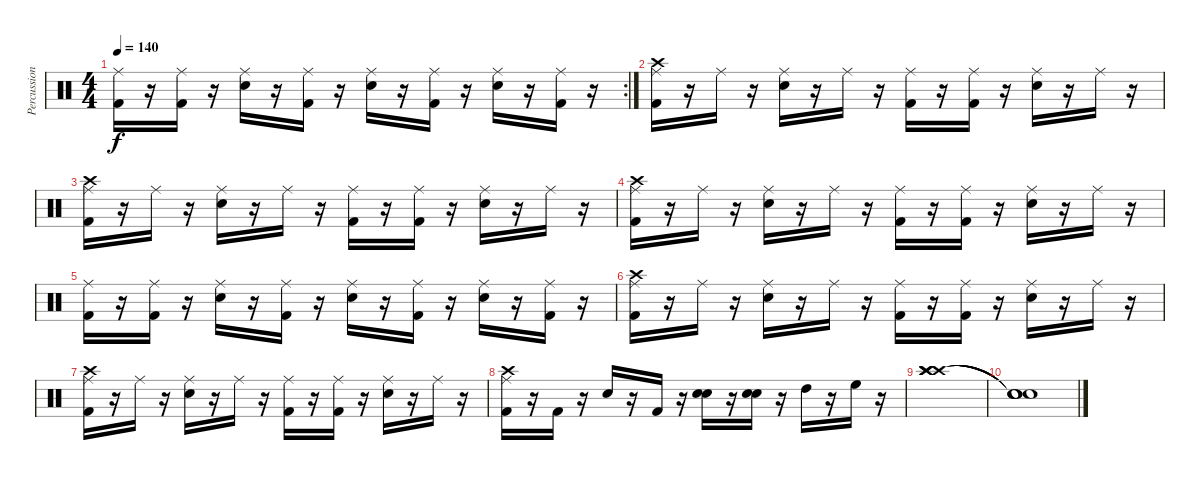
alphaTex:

\track ("Percussion" "Percussion") {instrument percussion}
\staff {score}
\articulation defaults
\rc 2
\ts (4 4)
\tempo 140
\clef neutral
\ks c
("Ride (middle)" "Kick (hit) 2").16{dy f} r.16 ("Ride (middle)" "Kick (hit) 2").16 r.16 ("Ride (middle)" "Electric Snare (hit)").16 r.16 ("Ride (middle)" "Kick (hit) 2").16 r.16 ("Ride (middle)" "Electric Snare (hit)").16 r.16 ("Ride (middle)" "Kick (hit) 2").16 r.16 ("Ride (middle)" "Electric Snare (hit)").16 r.16 ("Ride (middle)" "Kick (hit) 2").16 r.16 |
("Ride (middle)" "Crash high (hit)" "Kick (hit) 2").16 r.16 "Ride (middle)".16 r.16 ("Ride (middle)" "Electric Snare (hit)").16 r.16 "Ride (middle)".16 r.16 ("Ride (middle)" "Kick (hit) 2").16 r.16 ("Ride (middle)" "Kick (hit) 2").16 r.16 ("Ride (middle)" "Electric Snare (hit)").16 r.16 "Ride (middle)".16 r.16 |
("Ride (middle)" "Crash high (hit)" "Kick (hit) 2").16 r.16 "Ride (middle)".16 r.16 ("Ride (middle)" "Electric Snare (hit)").16 r.16 "Ride (middle)".16 r.16 ("Ride (middle)" "Kick (hit) 2").16 r.16 ("Ride (middle)" "Kick (hit) 2").16 r.16 ("Ride (middle)" "Electric Snare (hit)").16 r.16 "Ride (middle)".16 r.16 |
("Ride (middle)" "Crash high (hit)" "Kick (hit) 2").16 r.16 "Ride (middle)".16 r.16 ("Ride (middle)" "Electric Snare (hit)").16 r.16 "Ride (middle)".16 r.16 ("Ride (middle)" "Kick (hit) 2").16 r.16 ("Ride (middle)" "Kick (hit) 2").16 r.16 ("Ride (middle)" "Electric Snare (hit)").16 r.16 "Ride (middle)".16 r.16 |
("Ride (middle)" "Kick (hit) 2").16 r.16 ("Ride (middle)" "Kick (hit) 2").16 r.16 ("Ride (middle)" "Electric Snare (hit)").16 r.16 ("Ride (middle)" "Kick (hit) 2").16 r.16 ("Ride (middle)" "Electric Snare (hit)").16 r.16 ("Ride (middle)" "Kick (hit) 2").16 r.16 ("Ride (middle)" "Electric Snare (hit)").16 r.16 ("Ride (middle)" "Kick (hit) 2").16 r.16 |
("Ride (middle)" "Crash high (hit)" "Kick (hit) 2").16 r.16 "Ride (middle)".16 r.16 ("Ride (middle)" "Electric Snare (hit)").16 r.16 "Ride (middle)".16 r.16 ("Ride (middle)" "Kick (hit) 2").16 r.16 ("Ride (middle)" "Kick (hit) 2").16 r.16 ("Ride (middle)" "Electric Snare (hit)").16 r.16 "Ride (middle)".16 r.16 |
("Ride (middle)" "Crash high (hit)" "Kick (hit) 2").16 r.16 "Ride (middle)".16 r.16 ("Ride (middle)" "Electric Snare (hit)").16 r.16 "Ride (middle)".16 r.16 ("Ride (middle)" "Kick (hit) 2").16 r.16 ("Ride (middle)" "Kick (hit) 2").16 r.16 ("Ride (middle)" "Electric Snare (hit)").16 r.16 "Ride (middle)".16 r.16 |
("Ride (middle)" "Crash high (hit)" "Kick (hit) 2").16 r.16 "Kick (hit) 2".16 r.16 "Electric Snare (hit)".16 r.16 "Kick (hit) 2".16 r.16 ("Electric Snare (hit)" "Electric Snare (hit)").16 r.16 ("Electric Snare (hit)" "Electric Snare (hit)").16 r.16 "High Tom (hit)".16 r.16 "High Floor Tom (hit)".16 r.16 |
("Crash high (hit)" "Crash high (hit)" "Crash high (hit)" "Crash high (hit)").1 |
("Snare (hit)"{t} "Snare (hit)"{t} "Snare (hit)"{t} "Snare (hit)"{t}).1
